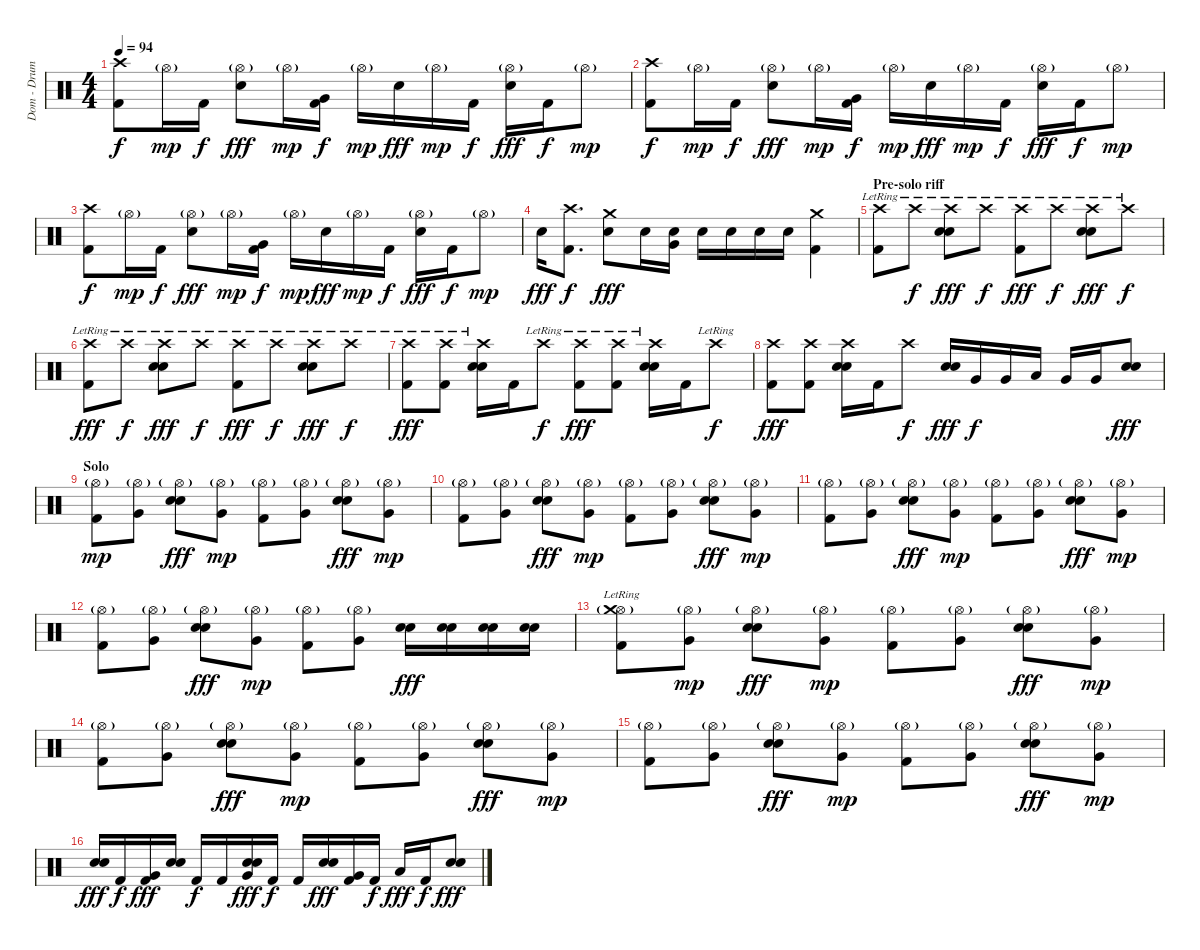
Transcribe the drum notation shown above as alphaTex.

\track ("Dom - Drums" "Dom - Drum") {instrument percussion}
\staff {score}
\articulation defaults
\ts (4 4)
\tempo 94
\clef neutral
\ks c
("Crash high (hit)" "Kick (hit) 2").8{dy f} "Hi-Hat (open)"{g}.16{dy mp} "Kick (hit) 2".16{dy f} ("Hi-Hat (open)"{g} "Snare (hit) 2").8{dy fff} "Hi-Hat (open)"{g}.16{dy mp} ("Very Low Tom (hit)" "Kick (hit) 2").16{dy f} "Hi-Hat (open)"{g}.16{dy mp} "Snare (hit) 2".16{dy fff} "Hi-Hat (open)"{g}.16{dy mp} "Kick (hit) 2".16{dy f} ("Hi-Hat (open)"{g} "Snare (hit) 2").16{dy fff} "Kick (hit) 2".16{dy f} "Hi-Hat (open)"{g}.8{dy mp} |
("Crash high (hit)" "Kick (hit) 2").8{dy f} "Hi-Hat (open)"{g}.16{dy mp} "Kick (hit) 2".16{dy f} ("Hi-Hat (open)"{g} "Snare (hit) 2").8{dy fff} "Hi-Hat (open)"{g}.16{dy mp} ("Very Low Tom (hit)" "Kick (hit) 2").16{dy f} "Hi-Hat (open)"{g}.16{dy mp} "Snare (hit) 2".16{dy fff} "Hi-Hat (open)"{g}.16{dy mp} "Kick (hit) 2".16{dy f} ("Hi-Hat (open)"{g} "Snare (hit) 2").16{dy fff} "Kick (hit) 2".16{dy f} "Hi-Hat (open)"{g}.8{dy mp} |
("Crash high (hit)" "Kick (hit) 2").8{dy f} "Hi-Hat (open)"{g}.16{dy mp} "Kick (hit) 2".16{dy f} ("Hi-Hat (open)"{g} "Snare (hit) 2").8{dy fff} "Hi-Hat (open)"{g}.16{dy mp} ("Very Low Tom (hit)" "Kick (hit) 2").16{dy f} "Hi-Hat (open)"{g}.16{dy mp} "Snare (hit) 2".16{dy fff} "Hi-Hat (open)"{g}.16{dy mp} "Kick (hit) 2".16{dy f} ("Hi-Hat (open)"{g} "Snare (hit) 2").16{dy fff} "Kick (hit) 2".16{dy f} "Hi-Hat (open)"{g}.8{dy mp} |
"Snare (hit) 2".16{dy fff} ("Crash high (hit)" "Kick (hit) 2").8{d dy f} ("Crash medium (hit)" "Snare (hit) 2").8{dy fff} "Snare (hit) 2".16 ("Snare (hit) 2" "Very Low Tom (hit)").16 "Snare (hit) 2".16 "Snare (hit) 2".16 "Snare (hit) 2".16 "Snare (hit) 2".16 ("Crash medium (hit)" "Kick (hit) 2").4 |
\section ("" "Pre-solo riff")
("Crash high (hit)"{lr} "Kick (hit) 2").8 "Crash high (hit)"{lr}.8{dy f} ("Crash high (hit)"{lr} "Electric Snare (hit)" "Snare (hit) 2").8{dy fff} "Crash high (hit)"{lr}.8{dy f} ("Crash high (hit)"{lr} "Kick (hit) 2").8{dy fff} "Crash high (hit)"{lr}.8{dy f} ("Crash high (hit)"{lr} "Electric Snare (hit)" "Snare (hit) 2").8{dy fff} "Crash high (hit)"{lr}.8{dy f} |
("Crash high (hit)"{lr} "Kick (hit) 2").8{dy fff} "Crash high (hit)"{lr}.8{dy f} ("Crash high (hit)"{lr} "Electric Snare (hit)" "Snare (hit) 2").8{dy fff} "Crash high (hit)"{lr}.8{dy f} ("Crash high (hit)"{lr} "Kick (hit) 2").8{dy fff} "Crash high (hit)"{lr}.8{dy f} ("Crash high (hit)"{lr} "Electric Snare (hit)" "Snare (hit) 2").8{dy fff} "Crash high (hit)"{lr}.8{dy f} |
("Crash high (hit)"{lr} "Kick (hit) 2").8{dy fff} ("Crash high (hit)"{lr} "Kick (hit) 2").8 ("Crash high (hit)"{lr} "Electric Snare (hit)" "Snare (hit) 2").16 "Kick (hit) 2".16 "Crash high (hit)"{lr}.8{dy f} ("Crash high (hit)"{lr} "Kick (hit) 2").8{dy fff} ("Crash high (hit)"{lr} "Kick (hit) 2").8 ("Crash high (hit)"{lr} "Electric Snare (hit)" "Snare (hit) 2").16 "Kick (hit) 2".16 "Crash high (hit)"{lr}.8{dy f} |
("Crash high (hit)" "Kick (hit) 2").8{dy fff} ("Crash high (hit)" "Kick (hit) 2").8 ("Crash high (hit)" "Electric Snare (hit)" "Snare (hit) 2").16 "Kick (hit) 2".16 "Crash high (hit)".8{dy f} ("Electric Snare (hit)" "Snare (hit) 2").16{dy fff} "Very Low Tom (hit)".16{dy f} "Very Low Tom (hit)".16 "Low Tom (hit)".16 "Very Low Tom (hit)".16 "Very Low Tom (hit)".16 ("Electric Snare (hit)" "Snare (hit) 2").8{dy fff} |
\section ("" "Solo")
("Hi-Hat (open)"{g} "Kick (hit) 2").8{dy mp} ("Hi-Hat (open)"{g} "Very Low Tom (hit)").8 ("Hi-Hat (open)"{g} "Electric Snare (hit)" "Snare (hit) 2").8{dy fff} ("Hi-Hat (open)"{g} "Very Low Tom (hit)").8{dy mp} ("Hi-Hat (open)"{g} "Kick (hit) 2").8 ("Hi-Hat (open)"{g} "Very Low Tom (hit)").8 ("Hi-Hat (open)"{g} "Electric Snare (hit)" "Snare (hit) 2").8{dy fff} ("Hi-Hat (open)"{g} "Very Low Tom (hit)").8{dy mp} |
("Hi-Hat (open)"{g} "Kick (hit) 2").8 ("Hi-Hat (open)"{g} "Very Low Tom (hit)").8 ("Hi-Hat (open)"{g} "Electric Snare (hit)" "Snare (hit) 2").8{dy fff} ("Hi-Hat (open)"{g} "Very Low Tom (hit)").8{dy mp} ("Hi-Hat (open)"{g} "Kick (hit) 2").8 ("Hi-Hat (open)"{g} "Very Low Tom (hit)").8 ("Hi-Hat (open)"{g} "Electric Snare (hit)" "Snare (hit) 2").8{dy fff} ("Hi-Hat (open)"{g} "Very Low Tom (hit)").8{dy mp} |
("Hi-Hat (open)"{g} "Kick (hit) 2").8 ("Hi-Hat (open)"{g} "Very Low Tom (hit)").8 ("Hi-Hat (open)"{g} "Electric Snare (hit)" "Snare (hit) 2").8{dy fff} ("Hi-Hat (open)"{g} "Very Low Tom (hit)").8{dy mp} ("Hi-Hat (open)"{g} "Kick (hit) 2").8 ("Hi-Hat (open)"{g} "Very Low Tom (hit)").8 ("Hi-Hat (open)"{g} "Electric Snare (hit)" "Snare (hit) 2").8{dy fff} ("Hi-Hat (open)"{g} "Very Low Tom (hit)").8{dy mp} |
("Hi-Hat (open)"{g} "Kick (hit) 2").8 ("Hi-Hat (open)"{g} "Very Low Tom (hit)").8 ("Hi-Hat (open)"{g} "Electric Snare (hit)" "Snare (hit) 2").8{dy fff} ("Hi-Hat (open)"{g} "Very Low Tom (hit)").8{dy mp} ("Hi-Hat (open)"{g} "Kick (hit) 2").8 ("Hi-Hat (open)"{g} "Very Low Tom (hit)").8 ("Electric Snare (hit)" "Snare (hit) 2").16{dy fff} ("Electric Snare (hit)" "Snare (hit) 2").16 ("Electric Snare (hit)" "Snare (hit) 2").16 ("Electric Snare (hit)" "Snare (hit) 2").16 |
("Hi-Hat (open)"{g} "Crash medium (hit)"{lr} "Kick (hit) 2").8 ("Hi-Hat (open)"{g} "Very Low Tom (hit)").8{dy mp} ("Hi-Hat (open)"{g} "Electric Snare (hit)" "Snare (hit) 2").8{dy fff} ("Hi-Hat (open)"{g} "Very Low Tom (hit)").8{dy mp} ("Hi-Hat (open)"{g} "Kick (hit) 2").8 ("Hi-Hat (open)"{g} "Very Low Tom (hit)").8 ("Hi-Hat (open)"{g} "Electric Snare (hit)" "Snare (hit) 2").8{dy fff} ("Hi-Hat (open)"{g} "Very Low Tom (hit)").8{dy mp} |
("Hi-Hat (open)"{g} "Kick (hit) 2").8 ("Hi-Hat (open)"{g} "Very Low Tom (hit)").8 ("Hi-Hat (open)"{g} "Electric Snare (hit)" "Snare (hit) 2").8{dy fff} ("Hi-Hat (open)"{g} "Very Low Tom (hit)").8{dy mp} ("Hi-Hat (open)"{g} "Kick (hit) 2").8 ("Hi-Hat (open)"{g} "Very Low Tom (hit)").8 ("Hi-Hat (open)"{g} "Electric Snare (hit)" "Snare (hit) 2").8{dy fff} ("Hi-Hat (open)"{g} "Very Low Tom (hit)").8{dy mp} |
("Hi-Hat (open)"{g} "Kick (hit) 2").8 ("Hi-Hat (open)"{g} "Very Low Tom (hit)").8 ("Hi-Hat (open)"{g} "Electric Snare (hit)" "Snare (hit) 2").8{dy fff} ("Hi-Hat (open)"{g} "Very Low Tom (hit)").8{dy mp} ("Hi-Hat (open)"{g} "Kick (hit) 2").8 ("Hi-Hat (open)"{g} "Very Low Tom (hit)").8 ("Hi-Hat (open)"{g} "Electric Snare (hit)" "Snare (hit) 2").8{dy fff} ("Hi-Hat (open)"{g} "Very Low Tom (hit)").8{dy mp} |
("Electric Snare (hit)" "Snare (hit) 2").16{dy fff} "Kick (hit) 2".16{dy f} ("Very Low Tom (hit)" "Kick (hit) 2").16{dy fff} ("Electric Snare (hit)" "Snare (hit) 2").16 "Kick (hit) 2".16{dy f} "Kick (hit) 2".16 ("Electric Snare (hit)" "Snare (hit) 2" "Very Low Tom (hit)").16{dy fff} "Kick (hit) 2".16{dy f} "Kick (hit) 2".16 ("Electric Snare (hit)" "Snare (hit) 2").16{dy fff} ("Very Low Tom (hit)" "Kick (hit) 2").16 "Kick (hit) 2".16{dy f} "Low Tom (hit)".16{dy fff} "Kick (hit) 2".16{dy f} ("Electric Snare (hit)" "Snare (hit) 2").8{dy fff}
